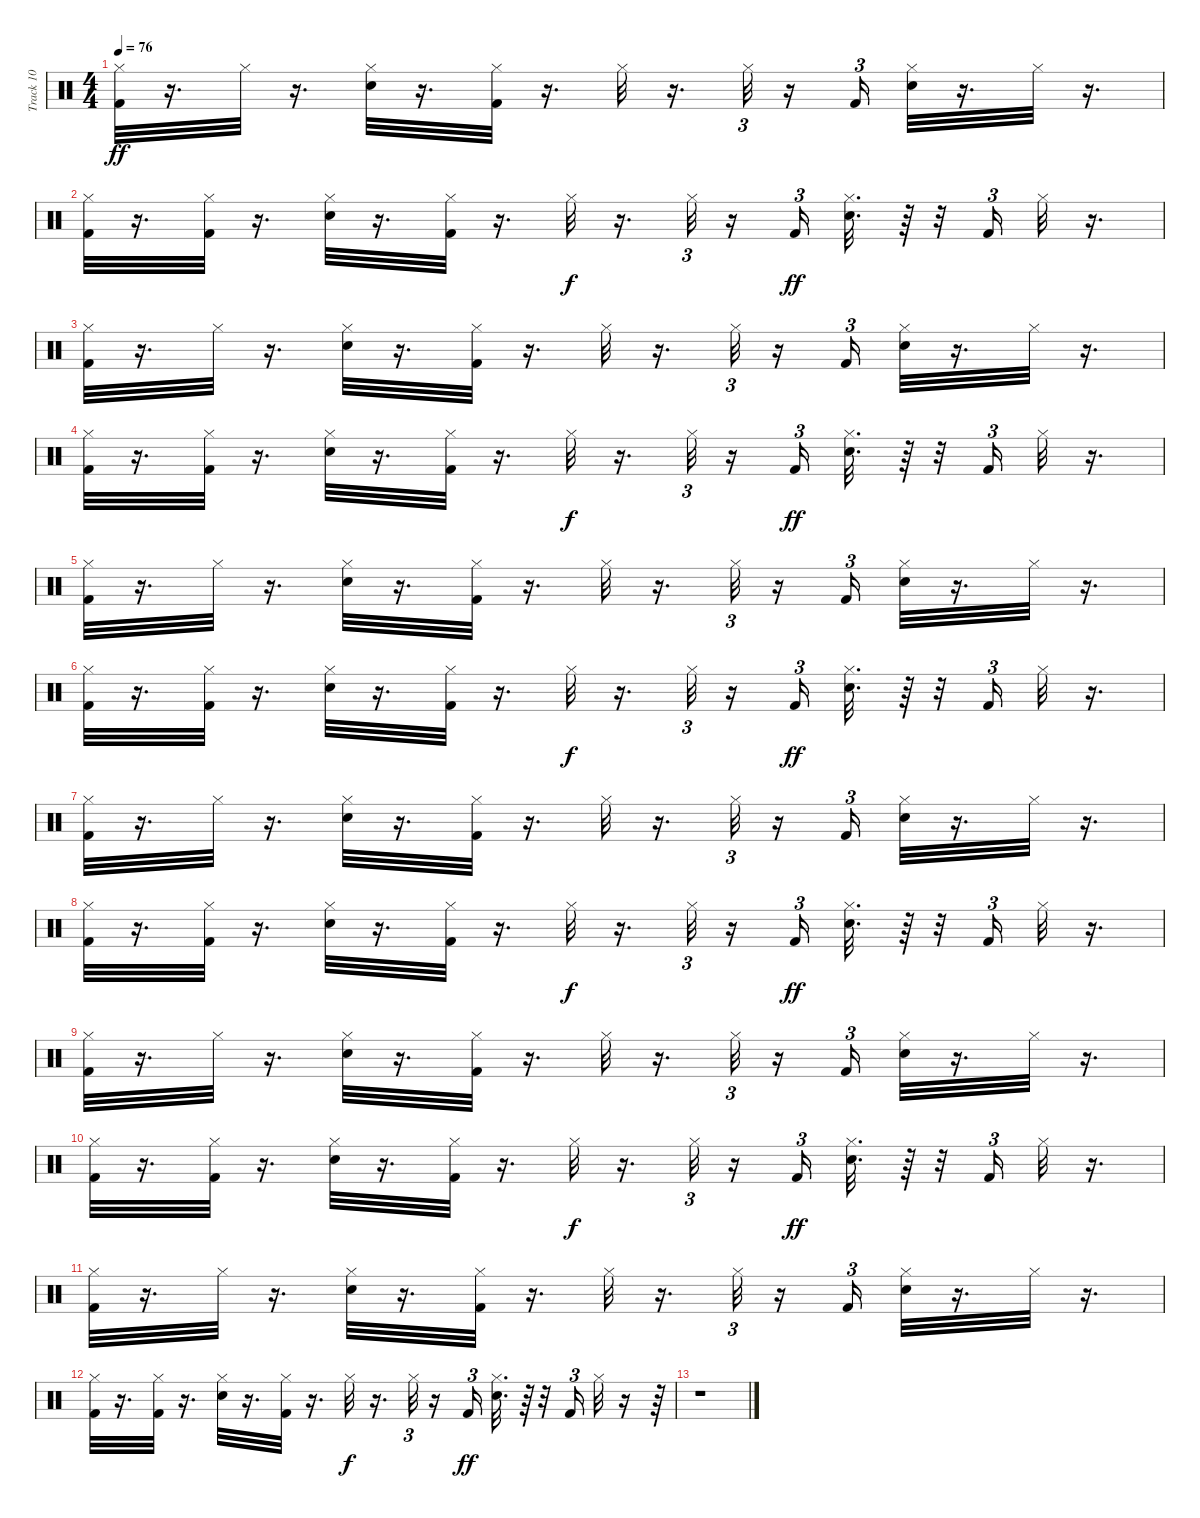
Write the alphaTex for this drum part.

\track ("Track 10" "Track 10") {instrument percussion}
\staff {score}
\articulation defaults
\ts (4 4)
\tempo 76
\clef neutral
\ks c
("Hi-Hat (closed)" "Kick (hit) 2").32{dy ff} r.16{d} "Hi-Hat (closed)".32 r.16{d} ("Hi-Hat (closed)" "Electric Snare (hit)").32 r.16{d} ("Hi-Hat (closed)" "Kick (hit) 2").32 r.16{d} "Hi-Hat (closed)".32 r.16{d} "Hi-Hat (closed)".32{tu (3 2)} r.16 "Kick (hit) 2".16{tu (3 2)} ("Hi-Hat (closed)" "Electric Snare (hit)").32 r.16{d} "Hi-Hat (closed)".32 r.16{d} |
("Hi-Hat (closed)" "Kick (hit) 2").32 r.16{d} ("Hi-Hat (closed)" "Kick (hit) 2").32 r.16{d} ("Hi-Hat (closed)" "Electric Snare (hit)").32 r.16{d} ("Hi-Hat (closed)" "Kick (hit) 2").32 r.16{d} "Hi-Hat (closed)".32{dy f} r.16{d} "Hi-Hat (closed)".32{tu (3 2)} r.16 "Kick (hit) 2".16{tu (3 2) dy ff} ("Hi-Hat (closed)" "Electric Snare (hit)").32{d} r.64 r.32 "Kick (hit) 2".16{tu (3 2)} "Hi-Hat (closed)".32 r.16{d} |
("Hi-Hat (closed)" "Kick (hit) 2").32 r.16{d} "Hi-Hat (closed)".32 r.16{d} ("Hi-Hat (closed)" "Electric Snare (hit)").32 r.16{d} ("Hi-Hat (closed)" "Kick (hit) 2").32 r.16{d} "Hi-Hat (closed)".32 r.16{d} "Hi-Hat (closed)".32{tu (3 2)} r.16 "Kick (hit) 2".16{tu (3 2)} ("Hi-Hat (closed)" "Electric Snare (hit)").32 r.16{d} "Hi-Hat (closed)".32 r.16{d} |
("Hi-Hat (closed)" "Kick (hit) 2").32 r.16{d} ("Hi-Hat (closed)" "Kick (hit) 2").32 r.16{d} ("Hi-Hat (closed)" "Electric Snare (hit)").32 r.16{d} ("Hi-Hat (closed)" "Kick (hit) 2").32 r.16{d} "Hi-Hat (closed)".32{dy f} r.16{d} "Hi-Hat (closed)".32{tu (3 2)} r.16 "Kick (hit) 2".16{tu (3 2) dy ff} ("Hi-Hat (closed)" "Electric Snare (hit)").32{d} r.64 r.32 "Kick (hit) 2".16{tu (3 2)} "Hi-Hat (closed)".32 r.16{d} |
("Hi-Hat (closed)" "Kick (hit) 2").32 r.16{d} "Hi-Hat (closed)".32 r.16{d} ("Hi-Hat (closed)" "Electric Snare (hit)").32 r.16{d} ("Hi-Hat (closed)" "Kick (hit) 2").32 r.16{d} "Hi-Hat (closed)".32 r.16{d} "Hi-Hat (closed)".32{tu (3 2)} r.16 "Kick (hit) 2".16{tu (3 2)} ("Hi-Hat (closed)" "Electric Snare (hit)").32 r.16{d} "Hi-Hat (closed)".32 r.16{d} |
("Hi-Hat (closed)" "Kick (hit) 2").32 r.16{d} ("Hi-Hat (closed)" "Kick (hit) 2").32 r.16{d} ("Hi-Hat (closed)" "Electric Snare (hit)").32 r.16{d} ("Hi-Hat (closed)" "Kick (hit) 2").32 r.16{d} "Hi-Hat (closed)".32{dy f} r.16{d} "Hi-Hat (closed)".32{tu (3 2)} r.16 "Kick (hit) 2".16{tu (3 2) dy ff} ("Hi-Hat (closed)" "Electric Snare (hit)").32{d} r.64 r.32 "Kick (hit) 2".16{tu (3 2)} "Hi-Hat (closed)".32 r.16{d} |
("Hi-Hat (closed)" "Kick (hit) 2").32 r.16{d} "Hi-Hat (closed)".32 r.16{d} ("Hi-Hat (closed)" "Electric Snare (hit)").32 r.16{d} ("Hi-Hat (closed)" "Kick (hit) 2").32 r.16{d} "Hi-Hat (closed)".32 r.16{d} "Hi-Hat (closed)".32{tu (3 2)} r.16 "Kick (hit) 2".16{tu (3 2)} ("Hi-Hat (closed)" "Electric Snare (hit)").32 r.16{d} "Hi-Hat (closed)".32 r.16{d} |
("Hi-Hat (closed)" "Kick (hit) 2").32 r.16{d} ("Hi-Hat (closed)" "Kick (hit) 2").32 r.16{d} ("Hi-Hat (closed)" "Electric Snare (hit)").32 r.16{d} ("Hi-Hat (closed)" "Kick (hit) 2").32 r.16{d} "Hi-Hat (closed)".32{dy f} r.16{d} "Hi-Hat (closed)".32{tu (3 2)} r.16 "Kick (hit) 2".16{tu (3 2) dy ff} ("Hi-Hat (closed)" "Electric Snare (hit)").32{d} r.64 r.32 "Kick (hit) 2".16{tu (3 2)} "Hi-Hat (closed)".32 r.16{d} |
("Hi-Hat (closed)" "Kick (hit) 2").32 r.16{d} "Hi-Hat (closed)".32 r.16{d} ("Hi-Hat (closed)" "Electric Snare (hit)").32 r.16{d} ("Hi-Hat (closed)" "Kick (hit) 2").32 r.16{d} "Hi-Hat (closed)".32 r.16{d} "Hi-Hat (closed)".32{tu (3 2)} r.16 "Kick (hit) 2".16{tu (3 2)} ("Hi-Hat (closed)" "Electric Snare (hit)").32 r.16{d} "Hi-Hat (closed)".32 r.16{d} |
("Hi-Hat (closed)" "Kick (hit) 2").32 r.16{d} ("Hi-Hat (closed)" "Kick (hit) 2").32 r.16{d} ("Hi-Hat (closed)" "Electric Snare (hit)").32 r.16{d} ("Hi-Hat (closed)" "Kick (hit) 2").32 r.16{d} "Hi-Hat (closed)".32{dy f} r.16{d} "Hi-Hat (closed)".32{tu (3 2)} r.16 "Kick (hit) 2".16{tu (3 2) dy ff} ("Hi-Hat (closed)" "Electric Snare (hit)").32{d} r.64 r.32 "Kick (hit) 2".16{tu (3 2)} "Hi-Hat (closed)".32 r.16{d} |
("Hi-Hat (closed)" "Kick (hit) 2").32 r.16{d} "Hi-Hat (closed)".32 r.16{d} ("Hi-Hat (closed)" "Electric Snare (hit)").32 r.16{d} ("Hi-Hat (closed)" "Kick (hit) 2").32 r.16{d} "Hi-Hat (closed)".32 r.16{d} "Hi-Hat (closed)".32{tu (3 2)} r.16 "Kick (hit) 2".16{tu (3 2)} ("Hi-Hat (closed)" "Electric Snare (hit)").32 r.16{d} "Hi-Hat (closed)".32 r.16{d} |
("Hi-Hat (closed)" "Kick (hit) 2").32 r.16{d} ("Hi-Hat (closed)" "Kick (hit) 2").32 r.16{d} ("Hi-Hat (closed)" "Electric Snare (hit)").32 r.16{d} ("Hi-Hat (closed)" "Kick (hit) 2").32 r.16{d} "Hi-Hat (closed)".32{dy f} r.16{d} "Hi-Hat (closed)".32{tu (3 2)} r.16 "Kick (hit) 2".16{tu (3 2) dy ff} ("Hi-Hat (closed)" "Electric Snare (hit)").32{d} r.64 r.32 "Kick (hit) 2".16{tu (3 2)} "Hi-Hat (closed)".32 r.16 r.64 |
r.1
